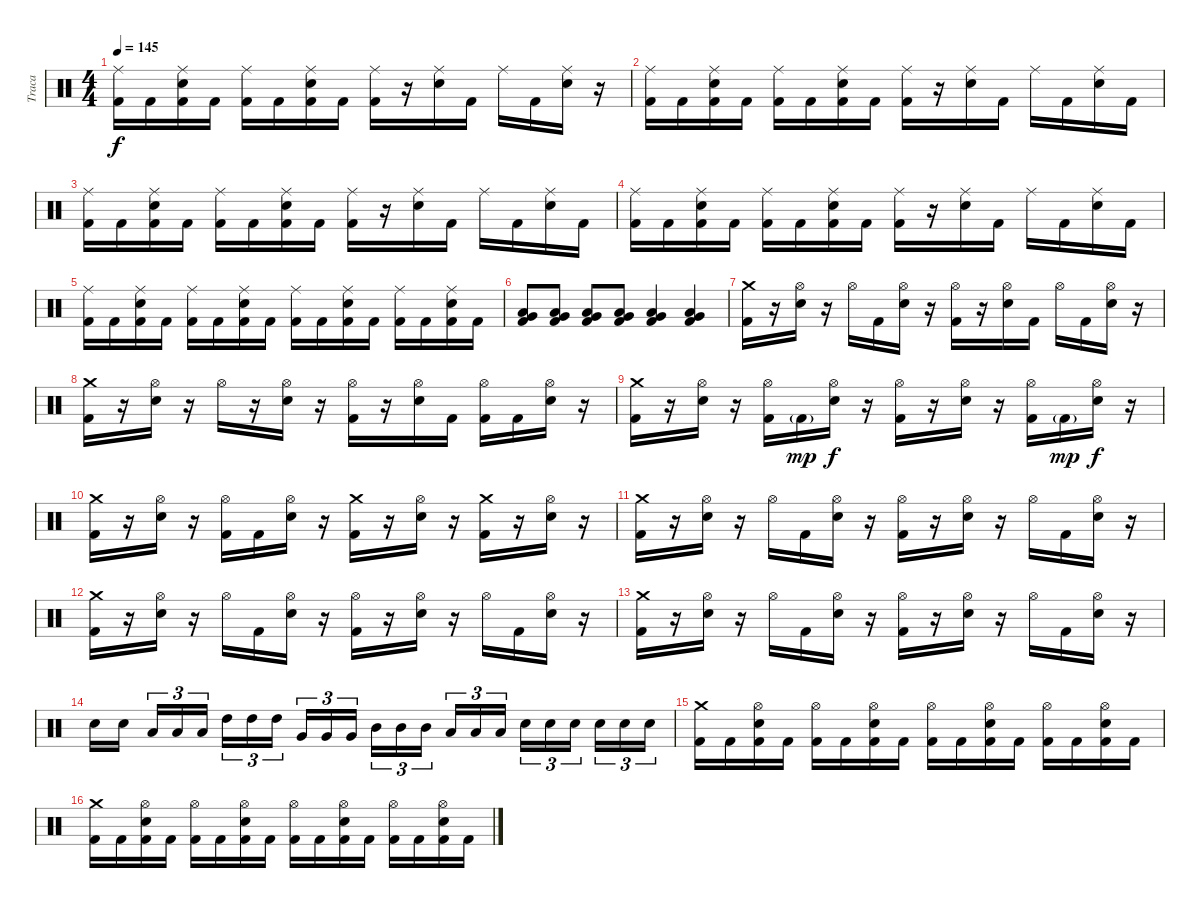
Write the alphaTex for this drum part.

\track ("Traca" "Traca") {instrument percussion}
\staff {score}
\articulation defaults
\ts (4 4)
\tempo 145
\clef neutral
\ks c
("Ride (middle)" "Kick (hit) 2").16{dy f} "Kick (hit) 2".16 ("Ride (middle)" "Snare (hit) 2" "Kick (hit) 2").16 "Kick (hit) 2".16 ("Ride (middle)" "Kick (hit) 2").16 "Kick (hit) 2".16 ("Ride (middle)" "Snare (hit) 2" "Kick (hit) 2").16 "Kick (hit) 2".16 ("Ride (middle)" "Kick (hit) 2").16 r.16 ("Ride (middle)" "Snare (hit) 2").16 "Kick (hit) 2".16 "Ride (middle)".16 "Kick (hit) 2".16 ("Ride (middle)" "Snare (hit) 2").16 r.16 |
("Ride (middle)" "Kick (hit) 2").16 "Kick (hit) 2".16 ("Ride (middle)" "Snare (hit) 2" "Kick (hit) 2").16 "Kick (hit) 2".16 ("Ride (middle)" "Kick (hit) 2").16 "Kick (hit) 2".16 ("Ride (middle)" "Snare (hit) 2" "Kick (hit) 2").16 "Kick (hit) 2".16 ("Ride (middle)" "Kick (hit) 2").16 r.16 ("Ride (middle)" "Snare (hit) 2").16 "Kick (hit) 2".16 "Ride (middle)".16 "Kick (hit) 2".16 ("Ride (middle)" "Snare (hit) 2").16 "Kick (hit) 2".16 |
("Ride (middle)" "Kick (hit) 2").16 "Kick (hit) 2".16 ("Ride (middle)" "Snare (hit) 2" "Kick (hit) 2").16 "Kick (hit) 2".16 ("Ride (middle)" "Kick (hit) 2").16 "Kick (hit) 2".16 ("Ride (middle)" "Snare (hit) 2" "Kick (hit) 2").16 "Kick (hit) 2".16 ("Ride (middle)" "Kick (hit) 2").16 r.16 ("Ride (middle)" "Snare (hit) 2").16 "Kick (hit) 2".16 "Ride (middle)".16 "Kick (hit) 2".16 ("Ride (middle)" "Snare (hit) 2").16 "Kick (hit) 2".16 |
("Ride (middle)" "Kick (hit) 2").16 "Kick (hit) 2".16 ("Ride (middle)" "Snare (hit) 2" "Kick (hit) 2").16 "Kick (hit) 2".16 ("Ride (middle)" "Kick (hit) 2").16 "Kick (hit) 2".16 ("Ride (middle)" "Snare (hit) 2" "Kick (hit) 2").16 "Kick (hit) 2".16 ("Ride (middle)" "Kick (hit) 2").16 r.16 ("Ride (middle)" "Snare (hit) 2").16 "Kick (hit) 2".16 "Ride (middle)".16 "Kick (hit) 2".16 ("Ride (middle)" "Snare (hit) 2").16 "Kick (hit) 2".16 |
("Ride (middle)" "Kick (hit) 2").16 "Kick (hit) 2".16 ("Ride (middle)" "Snare (hit) 2" "Kick (hit) 2").16 "Kick (hit) 2".16 ("Ride (middle)" "Kick (hit) 2").16 "Kick (hit) 2".16 ("Ride (middle)" "Snare (hit) 2" "Kick (hit) 2").16 "Kick (hit) 2".16 ("Ride (middle)" "Kick (hit) 2").16 "Kick (hit) 2".16 ("Ride (middle)" "Snare (hit) 2" "Kick (hit) 2").16 "Kick (hit) 2".16 ("Ride (middle)" "Kick (hit) 2").16 "Kick (hit) 2".16 ("Ride (middle)" "Snare (hit) 2" "Kick (hit) 2").16 "Kick (hit) 2".16 |
("Very Low Tom (hit)" "Low Floor Tom (hit)" "Kick (hit) 2").8 ("Very Low Tom (hit)" "Low Floor Tom (hit)" "Kick (hit) 2").8 ("Very Low Tom (hit)" "Low Floor Tom (hit)" "Kick (hit) 2").8 ("Very Low Tom (hit)" "Low Floor Tom (hit)" "Kick (hit) 2").8 ("Very Low Tom (hit)" "Low Floor Tom (hit)" "Kick (hit) 2").4 ("Very Low Tom (hit)" "Low Floor Tom (hit)" "Kick (hit) 2").4 |
("Crash medium (hit)" "Kick (hit) 2").16 r.16 ("Hi-Hat (open)" "Snare (hit) 2").16 r.16 "Hi-Hat (open)".16 "Kick (hit) 2".16 ("Hi-Hat (open)" "Snare (hit) 2").16 r.16 ("Hi-Hat (open)" "Kick (hit) 2").16 r.16 ("Hi-Hat (open)" "Snare (hit) 2").16 "Kick (hit) 2".16 "Hi-Hat (open)".16 "Kick (hit) 2".16 ("Hi-Hat (open)" "Snare (hit) 2").16 r.16 |
("Crash medium (hit)" "Kick (hit) 2").16 r.16 ("Hi-Hat (open)" "Snare (hit) 2").16 r.16 "Hi-Hat (open)".16 r.16 ("Hi-Hat (open)" "Snare (hit) 2").16 r.16 ("Hi-Hat (open)" "Kick (hit) 2").16 r.16 ("Hi-Hat (open)" "Snare (hit) 2").16 "Kick (hit) 2".16 ("Hi-Hat (open)" "Kick (hit) 2").16 "Kick (hit) 2".16 ("Hi-Hat (open)" "Snare (hit) 2").16 r.16 |
("Crash medium (hit)" "Kick (hit) 2").16 r.16 ("Hi-Hat (open)" "Snare (hit) 2").16 r.16 ("Hi-Hat (open)" "Kick (hit) 2").16 "Kick (hit) 2"{g}.16{dy mp} ("Hi-Hat (open)" "Snare (hit) 2").16{dy f} r.16 ("Hi-Hat (open)" "Kick (hit) 2").16 r.16 ("Hi-Hat (open)" "Snare (hit) 2").16 r.16 ("Hi-Hat (open)" "Kick (hit) 2").16 "Kick (hit) 2"{g}.16{dy mp} ("Hi-Hat (open)" "Snare (hit) 2").16{dy f} r.16 |
("Crash medium (hit)" "Kick (hit) 2").16 r.16 ("Hi-Hat (open)" "Snare (hit) 2").16 r.16 ("Hi-Hat (open)" "Kick (hit) 2").16 "Kick (hit) 2".16 ("Hi-Hat (open)" "Snare (hit) 2").16 r.16 ("Crash medium (hit)" "Kick (hit) 2").16 r.16 ("Hi-Hat (open)" "Snare (hit) 2").16 r.16 ("Crash medium (hit)" "Kick (hit) 2").16 r.16 ("Hi-Hat (open)" "Snare (hit) 2").16 r.16 |
("Crash medium (hit)" "Kick (hit) 2").16 r.16 ("Hi-Hat (open)" "Snare (hit) 2").16 r.16 "Hi-Hat (open)".16 "Kick (hit) 2".16 ("Hi-Hat (open)" "Snare (hit) 2").16 r.16 ("Hi-Hat (open)" "Kick (hit) 2").16 r.16 ("Hi-Hat (open)" "Snare (hit) 2").16 r.16 "Hi-Hat (open)".16 "Kick (hit) 2".16 ("Hi-Hat (open)" "Snare (hit) 2").16 r.16 |
("Crash medium (hit)" "Kick (hit) 2").16 r.16 ("Hi-Hat (open)" "Snare (hit) 2").16 r.16 "Hi-Hat (open)".16 "Kick (hit) 2".16 ("Hi-Hat (open)" "Snare (hit) 2").16 r.16 ("Hi-Hat (open)" "Kick (hit) 2").16 r.16 ("Hi-Hat (open)" "Snare (hit) 2").16 r.16 "Hi-Hat (open)".16 "Kick (hit) 2".16 ("Hi-Hat (open)" "Snare (hit) 2").16 r.16 |
("Crash medium (hit)" "Kick (hit) 2").16 r.16 ("Hi-Hat (open)" "Snare (hit) 2").16 r.16 "Hi-Hat (open)".16 "Kick (hit) 2".16 ("Hi-Hat (open)" "Snare (hit) 2").16 r.16 ("Hi-Hat (open)" "Kick (hit) 2").16 r.16 ("Hi-Hat (open)" "Snare (hit) 2").16 r.16 "Hi-Hat (open)".16 "Kick (hit) 2".16 ("Hi-Hat (open)" "Snare (hit) 2").16 r.16 |
"Snare (hit) 2".16 "Snare (hit) 2".16 "Low Tom (hit)".16{tu (3 2)} "Low Tom (hit)".16{tu (3 2)} "Low Tom (hit)".16{tu (3 2)} "High Tom (hit)".16{tu (3 2)} "High Tom (hit)".16{tu (3 2)} "High Tom (hit)".16{tu (3 2)} "Very Low Tom (hit)".16{tu (3 2)} "Very Low Tom (hit)".16{tu (3 2)} "Very Low Tom (hit)".16{tu (3 2)} "Mid Tom (hit)".16{tu (3 2)} "Mid Tom (hit)".16{tu (3 2)} "Mid Tom (hit)".16{tu (3 2)} "Low Floor Tom (hit)".16{tu (3 2)} "Low Floor Tom (hit)".16{tu (3 2)} "Low Floor Tom (hit)".16{tu (3 2)} "Snare (hit) 2".16{tu (3 2)} "Snare (hit) 2".16{tu (3 2)} "Snare (hit) 2".16{tu (3 2)} "Snare (hit) 2".16{tu (3 2)} "Snare (hit) 2".16{tu (3 2)} "Snare (hit) 2".16{tu (3 2)} |
("Crash medium (hit)" "Kick (hit) 2").16 "Kick (hit) 2".16 ("Hi-Hat (open)" "Snare (hit) 2" "Kick (hit) 2").16 "Kick (hit) 2".16 ("Hi-Hat (open)" "Kick (hit) 2").16 "Kick (hit) 2".16 ("Hi-Hat (open)" "Snare (hit) 2" "Kick (hit) 2").16 "Kick (hit) 2".16 ("Hi-Hat (open)" "Kick (hit) 2").16 "Kick (hit) 2".16 ("Hi-Hat (open)" "Snare (hit) 2" "Kick (hit) 2").16 "Kick (hit) 2".16 ("Hi-Hat (open)" "Kick (hit) 2").16 "Kick (hit) 2".16 ("Hi-Hat (open)" "Snare (hit) 2" "Kick (hit) 2").16 "Kick (hit) 2".16 |
("Crash medium (hit)" "Kick (hit) 2").16 "Kick (hit) 2".16 ("Hi-Hat (open)" "Snare (hit) 2" "Kick (hit) 2").16 "Kick (hit) 2".16 ("Hi-Hat (open)" "Kick (hit) 2").16 "Kick (hit) 2".16 ("Hi-Hat (open)" "Snare (hit) 2" "Kick (hit) 2").16 "Kick (hit) 2".16 ("Hi-Hat (open)" "Kick (hit) 2").16 "Kick (hit) 2".16 ("Hi-Hat (open)" "Snare (hit) 2" "Kick (hit) 2").16 "Kick (hit) 2".16 ("Hi-Hat (open)" "Kick (hit) 2").16 "Kick (hit) 2".16 ("Hi-Hat (open)" "Snare (hit) 2" "Kick (hit) 2").16 "Kick (hit) 2".16
